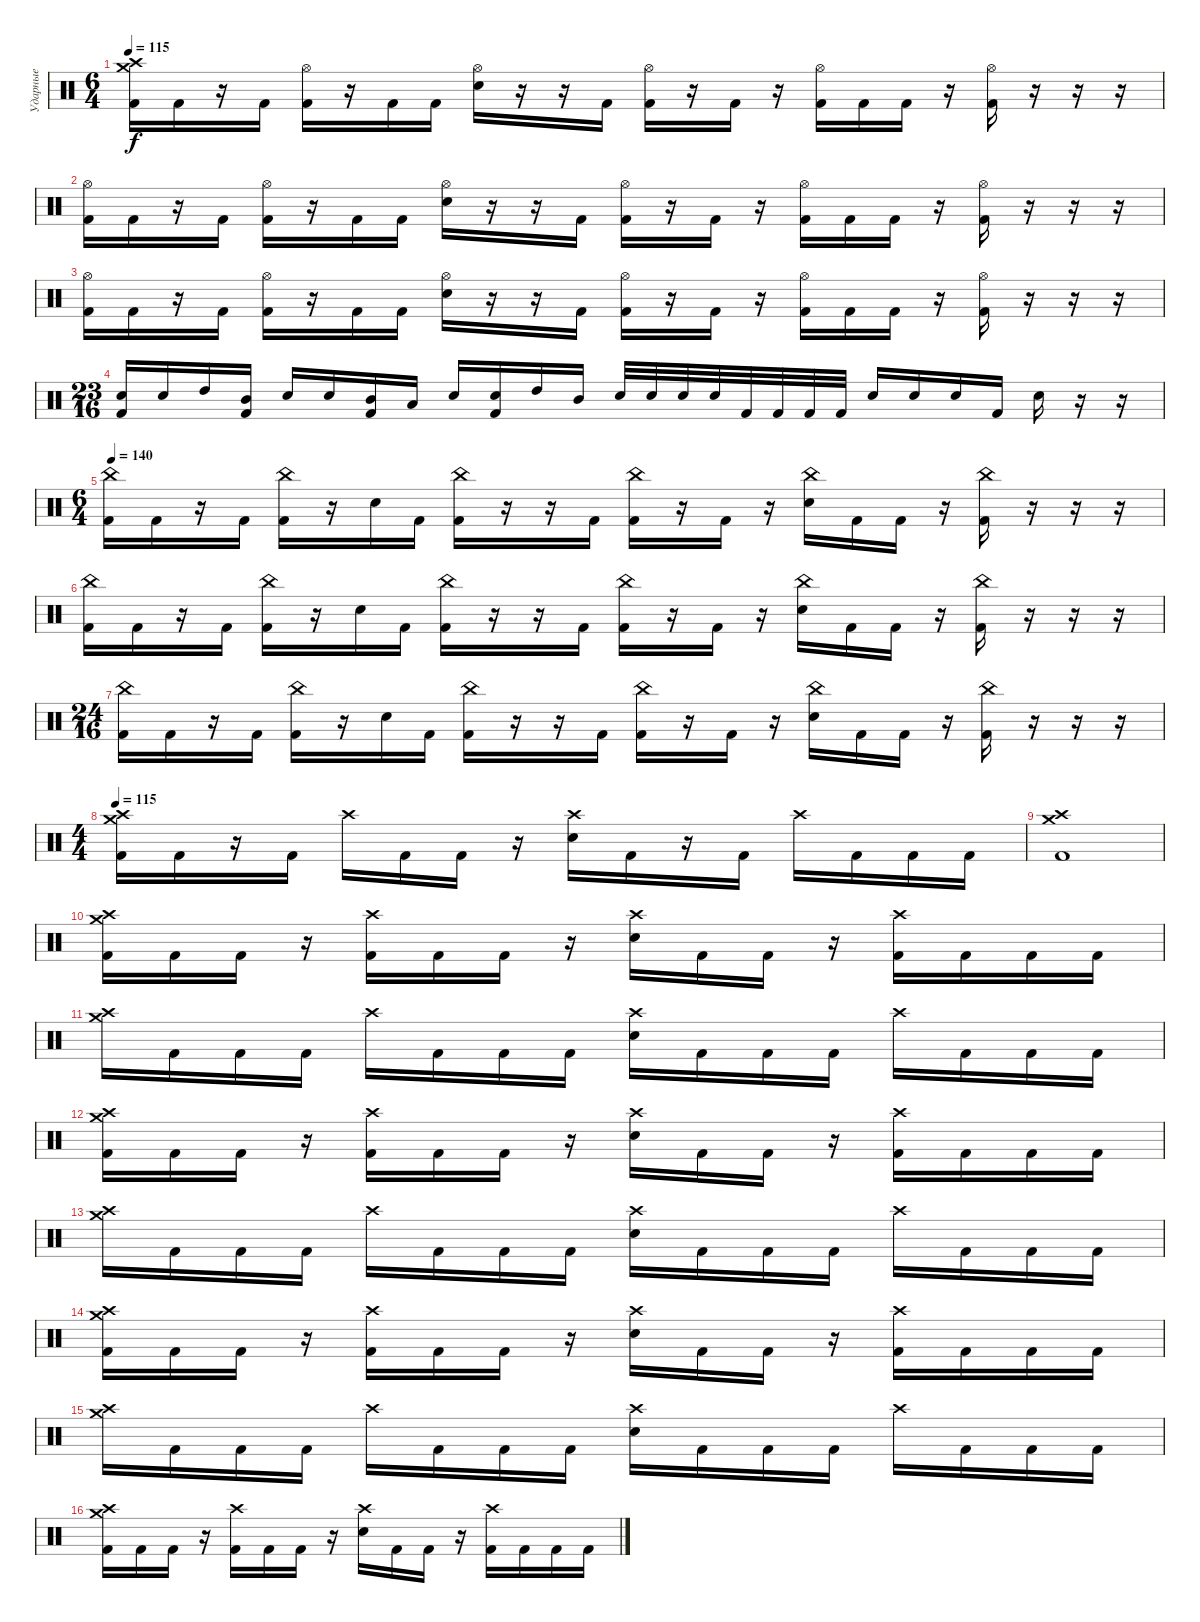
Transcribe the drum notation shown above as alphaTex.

\track ("Ударные" "Ударные") {instrument percussion}
\staff {score}
\articulation defaults
\ts (6 4)
\tempo 115
\clef neutral
\ks c
("Crash high (hit)" "Crash medium (hit)" "Kick (hit) 2").16{dy f} "Kick (hit) 2".16 r.16 "Kick (hit) 2".16 ("Hi-Hat (open)" "Kick (hit) 2").16 r.16 "Kick (hit) 2".16 "Kick (hit) 2".16 ("Hi-Hat (open)" "Electric Snare (hit)").16 r.16 r.16 "Kick (hit) 2".16 ("Hi-Hat (open)" "Kick (hit) 2").16 r.16 "Kick (hit) 2".16 r.16 ("Hi-Hat (open)" "Kick (hit) 2").16 "Kick (hit) 2".16 "Kick (hit) 2".16 r.16 ("Hi-Hat (open)" "Kick (hit) 2").16 r.16 r.16 r.16 |
("Hi-Hat (open)" "Kick (hit) 2").16 "Kick (hit) 2".16 r.16 "Kick (hit) 2".16 ("Hi-Hat (open)" "Kick (hit) 2").16 r.16 "Kick (hit) 2".16 "Kick (hit) 2".16 ("Hi-Hat (open)" "Electric Snare (hit)").16 r.16 r.16 "Kick (hit) 2".16 ("Hi-Hat (open)" "Kick (hit) 2").16 r.16 "Kick (hit) 2".16 r.16 ("Hi-Hat (open)" "Kick (hit) 2").16 "Kick (hit) 2".16 "Kick (hit) 2".16 r.16 ("Hi-Hat (open)" "Kick (hit) 2").16 r.16 r.16 r.16 |
("Hi-Hat (open)" "Kick (hit) 2").16 "Kick (hit) 2".16 r.16 "Kick (hit) 2".16 ("Hi-Hat (open)" "Kick (hit) 2").16 r.16 "Kick (hit) 2".16 "Kick (hit) 2".16 ("Hi-Hat (open)" "Electric Snare (hit)").16 r.16 r.16 "Kick (hit) 2".16 ("Hi-Hat (open)" "Kick (hit) 2").16 r.16 "Kick (hit) 2".16 r.16 ("Hi-Hat (open)" "Kick (hit) 2").16 "Kick (hit) 2".16 "Kick (hit) 2".16 r.16 ("Hi-Hat (open)" "Kick (hit) 2").16 r.16 r.16 r.16 |
\ts (23 16)
("Electric Snare (hit)" "Kick (hit) 2").16 "Electric Snare (hit)".16 "High Tom (hit)".16 ("Mid Tom (hit)" "Kick (hit) 2").16 "Electric Snare (hit)".16 "Electric Snare (hit)".16 ("Mid Tom (hit)" "Kick (hit) 2").16 "Low Tom (hit)".16 "Electric Snare (hit)".16 ("Electric Snare (hit)" "Kick (hit) 2").16 "High Tom (hit)".16 "Mid Tom (hit)".16 "Electric Snare (hit)".32 "Electric Snare (hit)".32 "Electric Snare (hit)".32 "Electric Snare (hit)".32 "Kick (hit) 2".32 "Kick (hit) 2".32 "Kick (hit) 2".32 "Kick (hit) 2".32 "Electric Snare (hit)".16 "Electric Snare (hit)".16 "Electric Snare (hit)".16 "Kick (hit) 2".16 "Electric Snare (hit)".16 r.16 r.16 |
\ts (6 4)
\tempo 140
("China (hit)" "Kick (hit) 2").16 "Kick (hit) 2".16 r.16 "Kick (hit) 2".16 ("China (hit)" "Kick (hit) 2").16 r.16 "Electric Snare (hit)".16 "Kick (hit) 2".16 ("China (hit)" "Kick (hit) 2").16 r.16 r.16 "Kick (hit) 2".16 ("China (hit)" "Kick (hit) 2").16 r.16 "Kick (hit) 2".16 r.16 ("China (hit)" "Electric Snare (hit)").16 "Kick (hit) 2".16 "Kick (hit) 2".16 r.16 ("China (hit)" "Kick (hit) 2").16 r.16 r.16 r.16 |
("China (hit)" "Kick (hit) 2").16 "Kick (hit) 2".16 r.16 "Kick (hit) 2".16 ("China (hit)" "Kick (hit) 2").16 r.16 "Electric Snare (hit)".16 "Kick (hit) 2".16 ("China (hit)" "Kick (hit) 2").16 r.16 r.16 "Kick (hit) 2".16 ("China (hit)" "Kick (hit) 2").16 r.16 "Kick (hit) 2".16 r.16 ("China (hit)" "Electric Snare (hit)").16 "Kick (hit) 2".16 "Kick (hit) 2".16 r.16 ("China (hit)" "Kick (hit) 2").16 r.16 r.16 r.16 |
\ts (24 16)
("China (hit)" "Kick (hit) 2").16 "Kick (hit) 2".16 r.16 "Kick (hit) 2".16 ("China (hit)" "Kick (hit) 2").16 r.16 "Electric Snare (hit)".16 "Kick (hit) 2".16 ("China (hit)" "Kick (hit) 2").16 r.16 r.16 "Kick (hit) 2".16 ("China (hit)" "Kick (hit) 2").16 r.16 "Kick (hit) 2".16 r.16 ("China (hit)" "Electric Snare (hit)").16 "Kick (hit) 2".16 "Kick (hit) 2".16 r.16 ("China (hit)" "Kick (hit) 2").16 r.16 r.16 r.16 |
\ts (4 4)
\tempo 115
("Crash high (hit)" "Crash medium (hit)" "Kick (hit) 2").16 "Kick (hit) 2".16 r.16 "Kick (hit) 2".16 "Crash high (hit)".16 "Kick (hit) 2".16 "Kick (hit) 2".16 r.16 ("Crash high (hit)" "Electric Snare (hit)").16 "Kick (hit) 2".16 r.16 "Kick (hit) 2".16 "Crash high (hit)".16 "Kick (hit) 2".16 "Kick (hit) 2".16 "Kick (hit) 2".16 |
("Crash medium (hit)" "Crash high (hit)" "Kick (hit) 2").1 |
("Crash high (hit)" "Crash medium (hit)" "Kick (hit) 2").16 "Kick (hit) 2".16 "Kick (hit) 2".16 r.16 ("Crash high (hit)" "Kick (hit) 2").16 "Kick (hit) 2".16 "Kick (hit) 2".16 r.16 ("Crash high (hit)" "Electric Snare (hit)").16 "Kick (hit) 2".16 "Kick (hit) 2".16 r.16 ("Crash high (hit)" "Kick (hit) 2").16 "Kick (hit) 2".16 "Kick (hit) 2".16 "Kick (hit) 2".16 |
("Crash high (hit)" "Crash medium (hit)").16 "Kick (hit) 2".16 "Kick (hit) 2".16 "Kick (hit) 2".16 "Crash high (hit)".16 "Kick (hit) 2".16 "Kick (hit) 2".16 "Kick (hit) 2".16 ("Crash high (hit)" "Electric Snare (hit)").16 "Kick (hit) 2".16 "Kick (hit) 2".16 "Kick (hit) 2".16 "Crash high (hit)".16 "Kick (hit) 2".16 "Kick (hit) 2".16 "Kick (hit) 2".16 |
("Crash high (hit)" "Crash medium (hit)" "Kick (hit) 2").16 "Kick (hit) 2".16 "Kick (hit) 2".16 r.16 ("Crash high (hit)" "Kick (hit) 2").16 "Kick (hit) 2".16 "Kick (hit) 2".16 r.16 ("Crash high (hit)" "Electric Snare (hit)").16 "Kick (hit) 2".16 "Kick (hit) 2".16 r.16 ("Crash high (hit)" "Kick (hit) 2").16 "Kick (hit) 2".16 "Kick (hit) 2".16 "Kick (hit) 2".16 |
("Crash high (hit)" "Crash medium (hit)").16 "Kick (hit) 2".16 "Kick (hit) 2".16 "Kick (hit) 2".16 "Crash high (hit)".16 "Kick (hit) 2".16 "Kick (hit) 2".16 "Kick (hit) 2".16 ("Crash high (hit)" "Electric Snare (hit)").16 "Kick (hit) 2".16 "Kick (hit) 2".16 "Kick (hit) 2".16 "Crash high (hit)".16 "Kick (hit) 2".16 "Kick (hit) 2".16 "Kick (hit) 2".16 |
("Crash high (hit)" "Crash medium (hit)" "Kick (hit) 2").16 "Kick (hit) 2".16 "Kick (hit) 2".16 r.16 ("Crash high (hit)" "Kick (hit) 2").16 "Kick (hit) 2".16 "Kick (hit) 2".16 r.16 ("Crash high (hit)" "Electric Snare (hit)").16 "Kick (hit) 2".16 "Kick (hit) 2".16 r.16 ("Crash high (hit)" "Kick (hit) 2").16 "Kick (hit) 2".16 "Kick (hit) 2".16 "Kick (hit) 2".16 |
("Crash high (hit)" "Crash medium (hit)").16 "Kick (hit) 2".16 "Kick (hit) 2".16 "Kick (hit) 2".16 "Crash high (hit)".16 "Kick (hit) 2".16 "Kick (hit) 2".16 "Kick (hit) 2".16 ("Crash high (hit)" "Electric Snare (hit)").16 "Kick (hit) 2".16 "Kick (hit) 2".16 "Kick (hit) 2".16 "Crash high (hit)".16 "Kick (hit) 2".16 "Kick (hit) 2".16 "Kick (hit) 2".16 |
("Crash high (hit)" "Crash medium (hit)" "Kick (hit) 2").16 "Kick (hit) 2".16 "Kick (hit) 2".16 r.16 ("Crash high (hit)" "Kick (hit) 2").16 "Kick (hit) 2".16 "Kick (hit) 2".16 r.16 ("Crash high (hit)" "Electric Snare (hit)").16 "Kick (hit) 2".16 "Kick (hit) 2".16 r.16 ("Crash high (hit)" "Kick (hit) 2").16 "Kick (hit) 2".16 "Kick (hit) 2".16 "Kick (hit) 2".16
